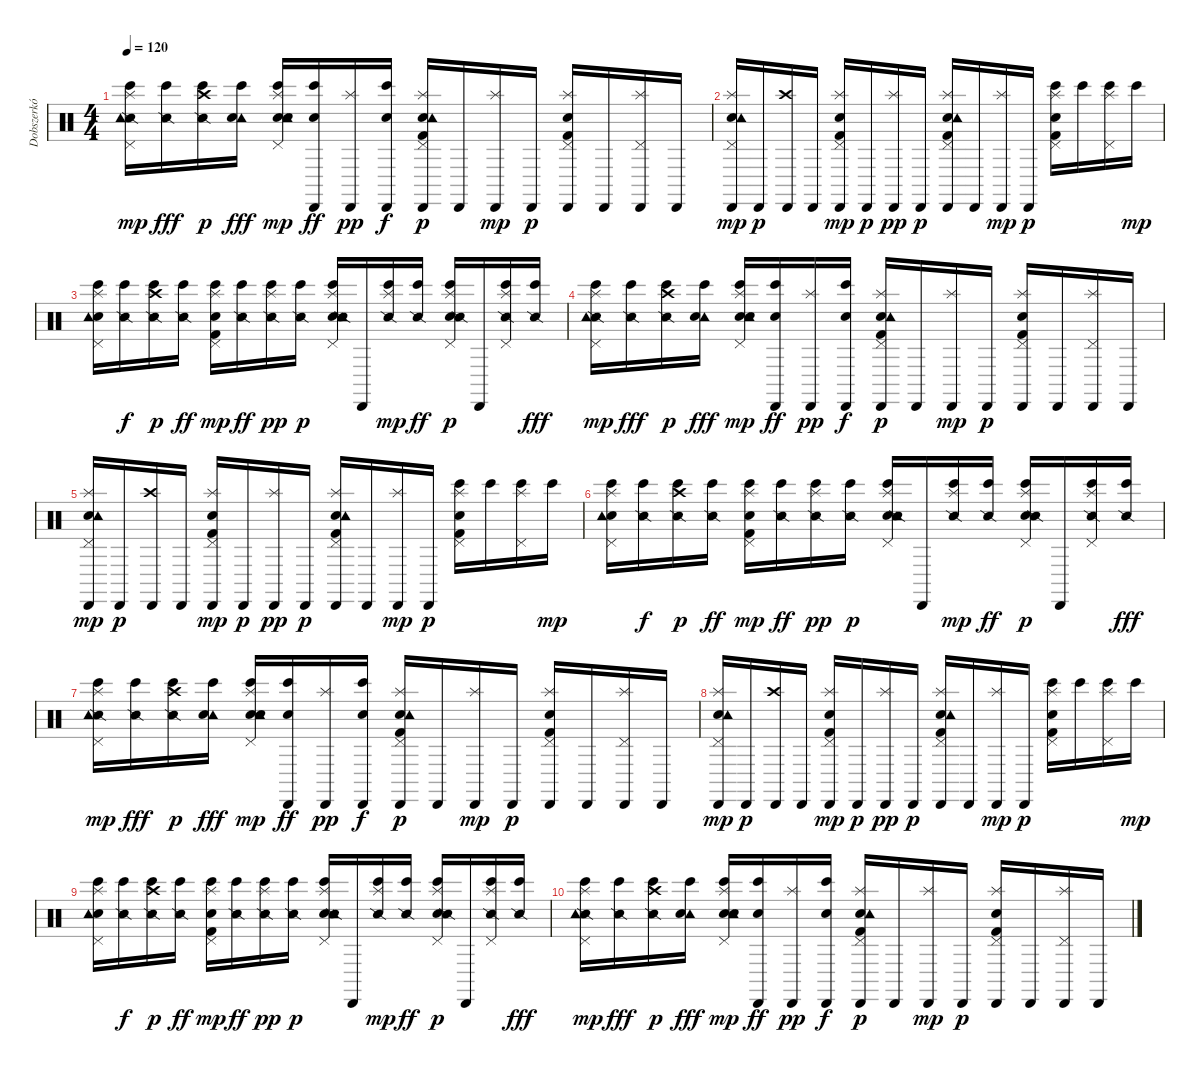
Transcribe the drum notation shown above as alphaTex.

\track ("Dobszerkó" "Dobszerkó") {instrument percussion}
\staff {score}
\articulation defaults
\ts (4 4)
\tempo 120
\clef neutral
\ks c
("Bongo High (hit)" "Snare (side stick) 2" "Tambourine (hit)" "Pedal Hi-Hat (hit)" "Splash (hit)").16{dy mp} ("Bongo High (hit)" "Snare (side stick) 2").16{dy fff} ("Bongo High (hit)" "Snare (side stick) 2" "Crash high (hit)").16{dy p} ("Tambourine (hit)" "Snare (hit) 2" "Bongo High (hit)").16{dy fff} ("Electric Snare (hit)" "Tambourine (hit)" "Snare (hit) 2" "Bongo High (hit)" "Pedal Hi-Hat (hit)" "Splash (hit)").16{dy mp} ("Cabasa (hit)" "Snare (hit) 2" "Bongo High (hit)").16{dy ff} ("Cabasa (hit)" "Splash (hit)").16{dy pp} ("Cabasa (hit)" "Snare (hit) 2" "Bongo High (hit)").16{dy f} ("Snare (hit) 2" "Cabasa (hit)" "Kick (hit) 2" "Tambourine (hit)" "Pedal Hi-Hat (hit)" "Splash (hit)").16{dy p} "Cabasa (hit)".16 ("Cabasa (hit)" "Splash (hit)").16{dy mp} "Cabasa (hit)".16{dy p} ("Electric Snare (hit)" "Cabasa (hit)" "Kick (hit) 2" "Pedal Hi-Hat (hit)" "Splash (hit)").16 "Cabasa (hit)".16 ("Cabasa (hit)" "Pedal Hi-Hat (hit)" "Splash (hit)").16 "Cabasa (hit)".16 |
("Cabasa (hit)" "Snare (hit) 2" "Tambourine (hit)" "Pedal Hi-Hat (hit)" "Splash (hit)").16{dy mp} "Cabasa (hit)".16{dy p} ("Cabasa (hit)" "Crash high (hit)").16 "Cabasa (hit)".16 ("Electric Snare (hit)" "Cabasa (hit)" "Kick (hit) 2" "Pedal Hi-Hat (hit)" "Splash (hit)").16{dy mp} "Cabasa (hit)".16{dy p} ("Cabasa (hit)" "Splash (hit)").16{dy pp} "Cabasa (hit)".16{dy p} ("Snare (hit) 2" "Cabasa (hit)" "Kick (hit) 2" "Tambourine (hit)" "Pedal Hi-Hat (hit)" "Splash (hit)").16 "Cabasa (hit)".16 ("Cabasa (hit)" "Splash (hit)").16{dy mp} "Cabasa (hit)".16{dy p} ("Electric Snare (hit)" "Bongo High (hit)" "Kick (hit) 2" "Pedal Hi-Hat (hit)" "Splash (hit)").16 "Bongo High (hit)".16 ("Bongo High (hit)" "Pedal Hi-Hat (hit)" "Splash (hit)").16 "Bongo High (hit)".16{dy mp} |
("Bongo High (hit)" "Snare (hit) 2" "Tambourine (hit)" "Pedal Hi-Hat (hit)" "Splash (hit)").16 ("Bongo High (hit)" "Snare (side stick) 2").16{dy f} ("Bongo High (hit)" "Snare (side stick) 2" "Crash high (hit)").16{dy p} ("Bongo High (hit)" "Snare (side stick) 2").16{dy ff} ("Electric Snare (hit)" "Bongo High (hit)" "Kick (hit) 2" "Pedal Hi-Hat (hit)" "Splash (hit)").16{dy mp} ("Bongo High (hit)" "Snare (side stick) 2").16{dy ff} ("Bongo High (hit)" "Snare (side stick) 2" "Splash (hit)").16{dy pp} ("Bongo High (hit)" "Snare (side stick) 2").16{dy p} ("Snare (hit) 2" "Bongo High (hit)" "Snare (side stick) 2" "Tambourine (hit)" "Pedal Hi-Hat (hit)" "Splash (hit)").16 "Cabasa (hit)".16 ("Bongo High (hit)" "Snare (side stick) 2" "Splash (hit)").16{dy mp} ("Bongo High (hit)" "Snare (side stick) 2").16{dy ff} ("Electric Snare (hit)" "Bongo High (hit)" "Snare (side stick) 2" "Pedal Hi-Hat (hit)" "Splash (hit)").16{dy p} "Cabasa (hit)".16 ("Bongo High (hit)" "Snare (side stick) 2" "Pedal Hi-Hat (hit)" "Splash (hit)").16 ("Bongo High (hit)" "Snare (side stick) 2").16{dy fff} |
("Bongo High (hit)" "Snare (side stick) 2" "Tambourine (hit)" "Pedal Hi-Hat (hit)" "Splash (hit)").16{dy mp} ("Bongo High (hit)" "Snare (side stick) 2").16{dy fff} ("Bongo High (hit)" "Snare (side stick) 2" "Crash high (hit)").16{dy p} ("Tambourine (hit)" "Snare (hit) 2" "Bongo High (hit)").16{dy fff} ("Electric Snare (hit)" "Tambourine (hit)" "Snare (hit) 2" "Bongo High (hit)" "Pedal Hi-Hat (hit)" "Splash (hit)").16{dy mp} ("Cabasa (hit)" "Snare (hit) 2" "Bongo High (hit)").16{dy ff} ("Cabasa (hit)" "Splash (hit)").16{dy pp} ("Cabasa (hit)" "Snare (hit) 2" "Bongo High (hit)").16{dy f} ("Snare (hit) 2" "Cabasa (hit)" "Kick (hit) 2" "Tambourine (hit)" "Pedal Hi-Hat (hit)" "Splash (hit)").16{dy p} "Cabasa (hit)".16 ("Cabasa (hit)" "Splash (hit)").16{dy mp} "Cabasa (hit)".16{dy p} ("Electric Snare (hit)" "Cabasa (hit)" "Kick (hit) 2" "Pedal Hi-Hat (hit)" "Splash (hit)").16 "Cabasa (hit)".16 ("Cabasa (hit)" "Pedal Hi-Hat (hit)" "Splash (hit)").16 "Cabasa (hit)".16 |
("Cabasa (hit)" "Snare (hit) 2" "Tambourine (hit)" "Pedal Hi-Hat (hit)" "Splash (hit)").16{dy mp} "Cabasa (hit)".16{dy p} ("Cabasa (hit)" "Crash high (hit)").16 "Cabasa (hit)".16 ("Electric Snare (hit)" "Cabasa (hit)" "Kick (hit) 2" "Pedal Hi-Hat (hit)" "Splash (hit)").16{dy mp} "Cabasa (hit)".16{dy p} ("Cabasa (hit)" "Splash (hit)").16{dy pp} "Cabasa (hit)".16{dy p} ("Snare (hit) 2" "Cabasa (hit)" "Kick (hit) 2" "Tambourine (hit)" "Pedal Hi-Hat (hit)" "Splash (hit)").16 "Cabasa (hit)".16 ("Cabasa (hit)" "Splash (hit)").16{dy mp} "Cabasa (hit)".16{dy p} ("Electric Snare (hit)" "Bongo High (hit)" "Kick (hit) 2" "Pedal Hi-Hat (hit)" "Splash (hit)").16 "Bongo High (hit)".16 ("Bongo High (hit)" "Pedal Hi-Hat (hit)" "Splash (hit)").16 "Bongo High (hit)".16{dy mp} |
("Bongo High (hit)" "Snare (hit) 2" "Tambourine (hit)" "Pedal Hi-Hat (hit)" "Splash (hit)").16 ("Bongo High (hit)" "Snare (side stick) 2").16{dy f} ("Bongo High (hit)" "Snare (side stick) 2" "Crash high (hit)").16{dy p} ("Bongo High (hit)" "Snare (side stick) 2").16{dy ff} ("Electric Snare (hit)" "Bongo High (hit)" "Kick (hit) 2" "Pedal Hi-Hat (hit)" "Splash (hit)").16{dy mp} ("Bongo High (hit)" "Snare (side stick) 2").16{dy ff} ("Bongo High (hit)" "Snare (side stick) 2" "Splash (hit)").16{dy pp} ("Bongo High (hit)" "Snare (side stick) 2").16{dy p} ("Snare (hit) 2" "Bongo High (hit)" "Snare (side stick) 2" "Tambourine (hit)" "Pedal Hi-Hat (hit)" "Splash (hit)").16 "Cabasa (hit)".16 ("Bongo High (hit)" "Snare (side stick) 2" "Splash (hit)").16{dy mp} ("Bongo High (hit)" "Snare (side stick) 2").16{dy ff} ("Electric Snare (hit)" "Bongo High (hit)" "Snare (side stick) 2" "Pedal Hi-Hat (hit)" "Splash (hit)").16{dy p} "Cabasa (hit)".16 ("Bongo High (hit)" "Snare (side stick) 2" "Pedal Hi-Hat (hit)" "Splash (hit)").16 ("Bongo High (hit)" "Snare (side stick) 2").16{dy fff} |
("Bongo High (hit)" "Snare (side stick) 2" "Tambourine (hit)" "Pedal Hi-Hat (hit)" "Splash (hit)").16{dy mp} ("Bongo High (hit)" "Snare (side stick) 2").16{dy fff} ("Bongo High (hit)" "Snare (side stick) 2" "Crash high (hit)").16{dy p} ("Tambourine (hit)" "Snare (hit) 2" "Bongo High (hit)").16{dy fff} ("Electric Snare (hit)" "Tambourine (hit)" "Snare (hit) 2" "Bongo High (hit)" "Pedal Hi-Hat (hit)" "Splash (hit)").16{dy mp} ("Cabasa (hit)" "Snare (hit) 2" "Bongo High (hit)").16{dy ff} ("Cabasa (hit)" "Splash (hit)").16{dy pp} ("Cabasa (hit)" "Snare (hit) 2" "Bongo High (hit)").16{dy f} ("Snare (hit) 2" "Cabasa (hit)" "Kick (hit) 2" "Tambourine (hit)" "Pedal Hi-Hat (hit)" "Splash (hit)").16{dy p} "Cabasa (hit)".16 ("Cabasa (hit)" "Splash (hit)").16{dy mp} "Cabasa (hit)".16{dy p} ("Electric Snare (hit)" "Cabasa (hit)" "Kick (hit) 2" "Pedal Hi-Hat (hit)" "Splash (hit)").16 "Cabasa (hit)".16 ("Cabasa (hit)" "Pedal Hi-Hat (hit)" "Splash (hit)").16 "Cabasa (hit)".16 |
("Cabasa (hit)" "Snare (hit) 2" "Tambourine (hit)" "Pedal Hi-Hat (hit)" "Splash (hit)").16{dy mp} "Cabasa (hit)".16{dy p} ("Cabasa (hit)" "Crash high (hit)").16 "Cabasa (hit)".16 ("Electric Snare (hit)" "Cabasa (hit)" "Kick (hit) 2" "Pedal Hi-Hat (hit)" "Splash (hit)").16{dy mp} "Cabasa (hit)".16{dy p} ("Cabasa (hit)" "Splash (hit)").16{dy pp} "Cabasa (hit)".16{dy p} ("Snare (hit) 2" "Cabasa (hit)" "Kick (hit) 2" "Tambourine (hit)" "Pedal Hi-Hat (hit)" "Splash (hit)").16 "Cabasa (hit)".16 ("Cabasa (hit)" "Splash (hit)").16{dy mp} "Cabasa (hit)".16{dy p} ("Electric Snare (hit)" "Bongo High (hit)" "Kick (hit) 2" "Pedal Hi-Hat (hit)" "Splash (hit)").16 "Bongo High (hit)".16 ("Bongo High (hit)" "Pedal Hi-Hat (hit)" "Splash (hit)").16 "Bongo High (hit)".16{dy mp} |
("Bongo High (hit)" "Snare (hit) 2" "Tambourine (hit)" "Pedal Hi-Hat (hit)" "Splash (hit)").16 ("Bongo High (hit)" "Snare (side stick) 2").16{dy f} ("Bongo High (hit)" "Snare (side stick) 2" "Crash high (hit)").16{dy p} ("Bongo High (hit)" "Snare (side stick) 2").16{dy ff} ("Electric Snare (hit)" "Bongo High (hit)" "Kick (hit) 2" "Pedal Hi-Hat (hit)" "Splash (hit)").16{dy mp} ("Bongo High (hit)" "Snare (side stick) 2").16{dy ff} ("Bongo High (hit)" "Snare (side stick) 2" "Splash (hit)").16{dy pp} ("Bongo High (hit)" "Snare (side stick) 2").16{dy p} ("Snare (hit) 2" "Bongo High (hit)" "Snare (side stick) 2" "Tambourine (hit)" "Pedal Hi-Hat (hit)" "Splash (hit)").16 "Cabasa (hit)".16 ("Bongo High (hit)" "Snare (side stick) 2" "Splash (hit)").16{dy mp} ("Bongo High (hit)" "Snare (side stick) 2").16{dy ff} ("Electric Snare (hit)" "Bongo High (hit)" "Snare (side stick) 2" "Pedal Hi-Hat (hit)" "Splash (hit)").16{dy p} "Cabasa (hit)".16 ("Bongo High (hit)" "Snare (side stick) 2" "Pedal Hi-Hat (hit)" "Splash (hit)").16 ("Bongo High (hit)" "Snare (side stick) 2").16{dy fff} |
("Bongo High (hit)" "Snare (side stick) 2" "Tambourine (hit)" "Pedal Hi-Hat (hit)" "Splash (hit)").16{dy mp} ("Bongo High (hit)" "Snare (side stick) 2").16{dy fff} ("Bongo High (hit)" "Snare (side stick) 2" "Crash high (hit)").16{dy p} ("Tambourine (hit)" "Snare (hit) 2" "Bongo High (hit)").16{dy fff} ("Electric Snare (hit)" "Tambourine (hit)" "Snare (hit) 2" "Bongo High (hit)" "Pedal Hi-Hat (hit)" "Splash (hit)").16{dy mp} ("Cabasa (hit)" "Snare (hit) 2" "Bongo High (hit)").16{dy ff} ("Cabasa (hit)" "Splash (hit)").16{dy pp} ("Cabasa (hit)" "Snare (hit) 2" "Bongo High (hit)").16{dy f} ("Snare (hit) 2" "Cabasa (hit)" "Kick (hit) 2" "Tambourine (hit)" "Pedal Hi-Hat (hit)" "Splash (hit)").16{dy p} "Cabasa (hit)".16 ("Cabasa (hit)" "Splash (hit)").16{dy mp} "Cabasa (hit)".16{dy p} ("Electric Snare (hit)" "Cabasa (hit)" "Kick (hit) 2" "Pedal Hi-Hat (hit)" "Splash (hit)").16 "Cabasa (hit)".16 ("Cabasa (hit)" "Pedal Hi-Hat (hit)" "Splash (hit)").16 "Cabasa (hit)".16
